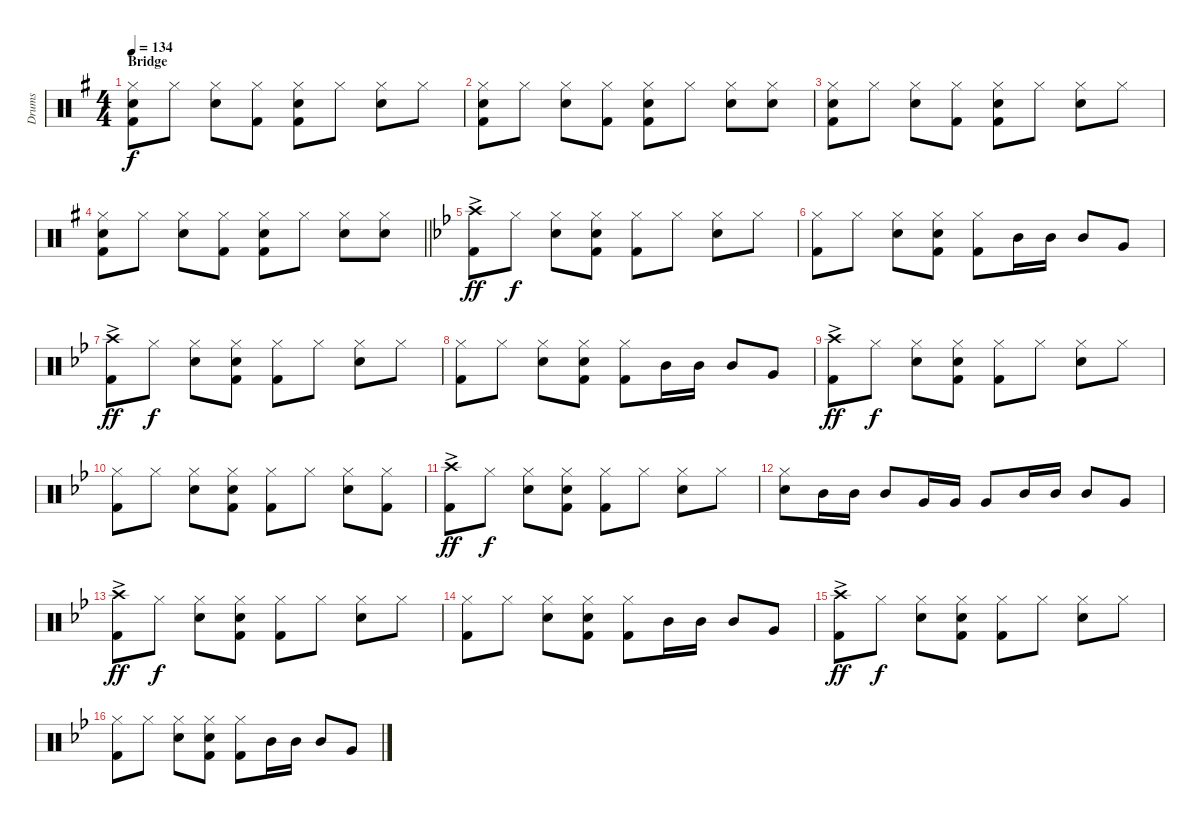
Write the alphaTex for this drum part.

\track ("Drums" "Drums") {instrument percussion}
\staff {score}
\articulation defaults
\ts (4 4)
\section ("" "Bridge")
\tempo 134
\clef neutral
\ks g
("Hi-Hat (closed)" "Electric Snare (hit)" "Kick (hit) 2").8{dy f} "Hi-Hat (closed)".8 ("Hi-Hat (closed)" "Electric Snare (hit)").8 ("Hi-Hat (closed)" "Kick (hit) 2").8 ("Hi-Hat (closed)" "Electric Snare (hit)" "Kick (hit) 2").8 "Hi-Hat (closed)".8 ("Hi-Hat (closed)" "Electric Snare (hit)").8 "Hi-Hat (closed)".8 |
("Hi-Hat (closed)" "Electric Snare (hit)" "Kick (hit) 2").8 "Hi-Hat (closed)".8 ("Hi-Hat (closed)" "Electric Snare (hit)").8 ("Hi-Hat (closed)" "Kick (hit) 2").8 ("Hi-Hat (closed)" "Electric Snare (hit)" "Kick (hit) 2").8 "Hi-Hat (closed)".8 ("Hi-Hat (closed)" "Electric Snare (hit)").8 ("Hi-Hat (closed)" "Electric Snare (hit)").8 |
("Hi-Hat (closed)" "Electric Snare (hit)" "Kick (hit) 2").8 "Hi-Hat (closed)".8 ("Hi-Hat (closed)" "Electric Snare (hit)").8 ("Hi-Hat (closed)" "Kick (hit) 2").8 ("Hi-Hat (closed)" "Electric Snare (hit)" "Kick (hit) 2").8 "Hi-Hat (closed)".8 ("Hi-Hat (closed)" "Electric Snare (hit)").8 "Hi-Hat (closed)".8 |
\barLineRight lightlight
("Hi-Hat (closed)" "Electric Snare (hit)" "Kick (hit) 2").8 "Hi-Hat (closed)".8 ("Hi-Hat (closed)" "Electric Snare (hit)").8 ("Hi-Hat (closed)" "Kick (hit) 2").8 ("Hi-Hat (closed)" "Electric Snare (hit)" "Kick (hit) 2").8 "Hi-Hat (closed)".8 ("Hi-Hat (closed)" "Electric Snare (hit)").8 ("Hi-Hat (closed)" "Electric Snare (hit)").8 |
\section ("" "")
\ks bb
("Crash high (hit)"{ac} "Kick (hit) 2").8{dy ff} "Hi-Hat (closed)".8{dy f} ("Hi-Hat (closed)" "Electric Snare (hit)").8 ("Hi-Hat (closed)" "Electric Snare (hit)" "Kick (hit) 2").8 ("Hi-Hat (closed)" "Kick (hit) 2").8 "Hi-Hat (closed)".8 ("Hi-Hat (closed)" "Electric Snare (hit)").8 "Hi-Hat (closed)".8 |
("Hi-Hat (closed)" "Kick (hit) 2").8 "Hi-Hat (closed)".8 ("Hi-Hat (closed)" "Electric Snare (hit)").8 ("Hi-Hat (closed)" "Electric Snare (hit)" "Kick (hit) 2").8 ("Hi-Hat (closed)" "Kick (hit) 2").8 "Mid Tom (hit)".16 "Mid Tom (hit)".16 "Mid Tom (hit)".8 "Very Low Tom (hit)".8 |
("Crash high (hit)"{ac} "Kick (hit) 2").8{dy ff} "Hi-Hat (closed)".8{dy f} ("Hi-Hat (closed)" "Electric Snare (hit)").8 ("Hi-Hat (closed)" "Electric Snare (hit)" "Kick (hit) 2").8 ("Hi-Hat (closed)" "Kick (hit) 2").8 "Hi-Hat (closed)".8 ("Hi-Hat (closed)" "Electric Snare (hit)").8 "Hi-Hat (closed)".8 |
("Hi-Hat (closed)" "Kick (hit) 2").8 "Hi-Hat (closed)".8 ("Hi-Hat (closed)" "Electric Snare (hit)").8 ("Hi-Hat (closed)" "Electric Snare (hit)" "Kick (hit) 2").8 ("Hi-Hat (closed)" "Kick (hit) 2").8 "Mid Tom (hit)".16 "Mid Tom (hit)".16 "Mid Tom (hit)".8 "Very Low Tom (hit)".8 |
("Crash high (hit)"{ac} "Kick (hit) 2").8{dy ff} "Hi-Hat (closed)".8{dy f} ("Hi-Hat (closed)" "Electric Snare (hit)").8 ("Hi-Hat (closed)" "Electric Snare (hit)" "Kick (hit) 2").8 ("Hi-Hat (closed)" "Kick (hit) 2").8 "Hi-Hat (closed)".8 ("Hi-Hat (closed)" "Electric Snare (hit)").8 "Hi-Hat (closed)".8 |
("Hi-Hat (closed)" "Kick (hit) 2").8 "Hi-Hat (closed)".8 ("Hi-Hat (closed)" "Electric Snare (hit)").8 ("Hi-Hat (closed)" "Electric Snare (hit)" "Kick (hit) 2").8 ("Hi-Hat (closed)" "Kick (hit) 2").8 "Hi-Hat (closed)".8 ("Hi-Hat (closed)" "Electric Snare (hit)").8 ("Hi-Hat (closed)" "Kick (hit) 2").8 |
("Crash high (hit)"{ac} "Kick (hit) 2").8{dy ff} "Hi-Hat (closed)".8{dy f} ("Hi-Hat (closed)" "Electric Snare (hit)").8 ("Hi-Hat (closed)" "Electric Snare (hit)" "Kick (hit) 2").8 ("Hi-Hat (closed)" "Kick (hit) 2").8 "Hi-Hat (closed)".8 ("Hi-Hat (closed)" "Electric Snare (hit)").8 "Hi-Hat (closed)".8 |
("Hi-Hat (closed)" "Electric Snare (hit)").8 "Mid Tom (hit)".16 "Mid Tom (hit)".16 "Mid Tom (hit)".8 "Very Low Tom (hit)".16 "Very Low Tom (hit)".16 "Very Low Tom (hit)".8 "Mid Tom (hit)".16 "Mid Tom (hit)".16 "Mid Tom (hit)".8 "Very Low Tom (hit)".8 |
("Crash high (hit)"{ac} "Kick (hit) 2").8{dy ff} "Hi-Hat (closed)".8{dy f} ("Hi-Hat (closed)" "Electric Snare (hit)").8 ("Hi-Hat (closed)" "Electric Snare (hit)" "Kick (hit) 2").8 ("Hi-Hat (closed)" "Kick (hit) 2").8 "Hi-Hat (closed)".8 ("Hi-Hat (closed)" "Electric Snare (hit)").8 "Hi-Hat (closed)".8 |
("Hi-Hat (closed)" "Kick (hit) 2").8 "Hi-Hat (closed)".8 ("Hi-Hat (closed)" "Electric Snare (hit)").8 ("Hi-Hat (closed)" "Electric Snare (hit)" "Kick (hit) 2").8 ("Hi-Hat (closed)" "Kick (hit) 2").8 "Mid Tom (hit)".16 "Mid Tom (hit)".16 "Mid Tom (hit)".8 "Very Low Tom (hit)".8 |
("Crash high (hit)"{ac} "Kick (hit) 2").8{dy ff} "Hi-Hat (closed)".8{dy f} ("Hi-Hat (closed)" "Electric Snare (hit)").8 ("Hi-Hat (closed)" "Electric Snare (hit)" "Kick (hit) 2").8 ("Hi-Hat (closed)" "Kick (hit) 2").8 "Hi-Hat (closed)".8 ("Hi-Hat (closed)" "Electric Snare (hit)").8 "Hi-Hat (closed)".8 |
("Hi-Hat (closed)" "Kick (hit) 2").8 "Hi-Hat (closed)".8 ("Hi-Hat (closed)" "Electric Snare (hit)").8 ("Hi-Hat (closed)" "Electric Snare (hit)" "Kick (hit) 2").8 ("Hi-Hat (closed)" "Kick (hit) 2").8 "Mid Tom (hit)".16 "Mid Tom (hit)".16 "Mid Tom (hit)".8 "Very Low Tom (hit)".8
